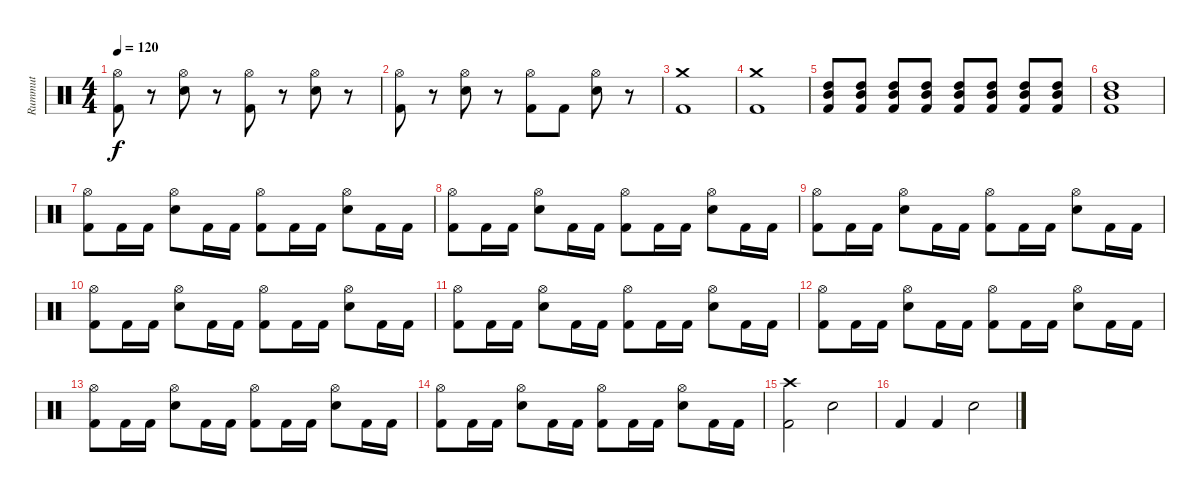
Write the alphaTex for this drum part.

\track ("Rummut" "Rummut") {instrument percussion}
\staff {score}
\articulation defaults
\ts (4 4)
\tempo 120
\clef neutral
\ks c
("Kick (hit) 2" "Hi-Hat (open)").8{dy f} r.8 ("Snare (hit) 2" "Hi-Hat (open)").8 r.8 ("Kick (hit) 2" "Hi-Hat (open)").8 r.8 ("Snare (hit) 2" "Hi-Hat (open)").8 r.8 |
("Kick (hit) 2" "Hi-Hat (open)").8 r.8 ("Snare (hit) 2" "Hi-Hat (open)").8 r.8 ("Kick (hit) 2" "Hi-Hat (open)").8 "Kick (hit) 2".8 ("Snare (hit) 2" "Hi-Hat (open)").8 r.8 |
("Kick (hit) 2" "Crash medium (hit)").1 |
("Kick (hit) 2" "Crash medium (hit)").1 |
("Kick (hit) 2" "High Tom (hit)" "Mid Tom (hit)").8 ("Kick (hit) 2" "High Tom (hit)" "Mid Tom (hit)").8 ("Kick (hit) 2" "High Tom (hit)" "Mid Tom (hit)").8 ("Kick (hit) 2" "High Tom (hit)" "Mid Tom (hit)").8 ("Kick (hit) 2" "High Tom (hit)" "Mid Tom (hit)").8 ("Kick (hit) 2" "High Tom (hit)" "Mid Tom (hit)").8 ("Kick (hit) 2" "High Tom (hit)" "Mid Tom (hit)").8 ("Kick (hit) 2" "High Tom (hit)" "Mid Tom (hit)").8 |
("Kick (hit) 2" "High Tom (hit)" "Mid Tom (hit)").1 |
("Kick (hit) 2" "Hi-Hat (open)").8 "Kick (hit) 2".16 "Kick (hit) 2".16 ("Snare (hit) 2" "Hi-Hat (open)").8 "Kick (hit) 2".16 "Kick (hit) 2".16 ("Kick (hit) 2" "Hi-Hat (open)").8 "Kick (hit) 2".16 "Kick (hit) 2".16 ("Snare (hit) 2" "Hi-Hat (open)").8 "Kick (hit) 2".16 "Kick (hit) 2".16 |
("Kick (hit) 2" "Hi-Hat (open)").8 "Kick (hit) 2".16 "Kick (hit) 2".16 ("Snare (hit) 2" "Hi-Hat (open)").8 "Kick (hit) 2".16 "Kick (hit) 2".16 ("Kick (hit) 2" "Hi-Hat (open)").8 "Kick (hit) 2".16 "Kick (hit) 2".16 ("Snare (hit) 2" "Hi-Hat (open)").8 "Kick (hit) 2".16 "Kick (hit) 2".16 |
("Kick (hit) 2" "Hi-Hat (open)").8 "Kick (hit) 2".16 "Kick (hit) 2".16 ("Snare (hit) 2" "Hi-Hat (open)").8 "Kick (hit) 2".16 "Kick (hit) 2".16 ("Kick (hit) 2" "Hi-Hat (open)").8 "Kick (hit) 2".16 "Kick (hit) 2".16 ("Snare (hit) 2" "Hi-Hat (open)").8 "Kick (hit) 2".16 "Kick (hit) 2".16 |
("Kick (hit) 2" "Hi-Hat (open)").8 "Kick (hit) 2".16 "Kick (hit) 2".16 ("Snare (hit) 2" "Hi-Hat (open)").8 "Kick (hit) 2".16 "Kick (hit) 2".16 ("Kick (hit) 2" "Hi-Hat (open)").8 "Kick (hit) 2".16 "Kick (hit) 2".16 ("Snare (hit) 2" "Hi-Hat (open)").8 "Kick (hit) 2".16 "Kick (hit) 2".16 |
("Kick (hit) 2" "Hi-Hat (open)").8 "Kick (hit) 2".16 "Kick (hit) 2".16 ("Snare (hit) 2" "Hi-Hat (open)").8 "Kick (hit) 2".16 "Kick (hit) 2".16 ("Kick (hit) 2" "Hi-Hat (open)").8 "Kick (hit) 2".16 "Kick (hit) 2".16 ("Snare (hit) 2" "Hi-Hat (open)").8 "Kick (hit) 2".16 "Kick (hit) 2".16 |
("Kick (hit) 2" "Hi-Hat (open)").8 "Kick (hit) 2".16 "Kick (hit) 2".16 ("Snare (hit) 2" "Hi-Hat (open)").8 "Kick (hit) 2".16 "Kick (hit) 2".16 ("Kick (hit) 2" "Hi-Hat (open)").8 "Kick (hit) 2".16 "Kick (hit) 2".16 ("Snare (hit) 2" "Hi-Hat (open)").8 "Kick (hit) 2".16 "Kick (hit) 2".16 |
("Kick (hit) 2" "Hi-Hat (open)").8 "Kick (hit) 2".16 "Kick (hit) 2".16 ("Snare (hit) 2" "Hi-Hat (open)").8 "Kick (hit) 2".16 "Kick (hit) 2".16 ("Kick (hit) 2" "Hi-Hat (open)").8 "Kick (hit) 2".16 "Kick (hit) 2".16 ("Snare (hit) 2" "Hi-Hat (open)").8 "Kick (hit) 2".16 "Kick (hit) 2".16 |
("Kick (hit) 2" "Hi-Hat (open)").8 "Kick (hit) 2".16 "Kick (hit) 2".16 ("Snare (hit) 2" "Hi-Hat (open)").8 "Kick (hit) 2".16 "Kick (hit) 2".16 ("Kick (hit) 2" "Hi-Hat (open)").8 "Kick (hit) 2".16 "Kick (hit) 2".16 ("Snare (hit) 2" "Hi-Hat (open)").8 "Kick (hit) 2".16 "Kick (hit) 2".16 |
("Kick (hit) 2" "Crash high (hit)").2 "Snare (hit) 2".2 |
"Kick (hit) 2".4 "Kick (hit) 2".4 "Snare (hit) 2".2
